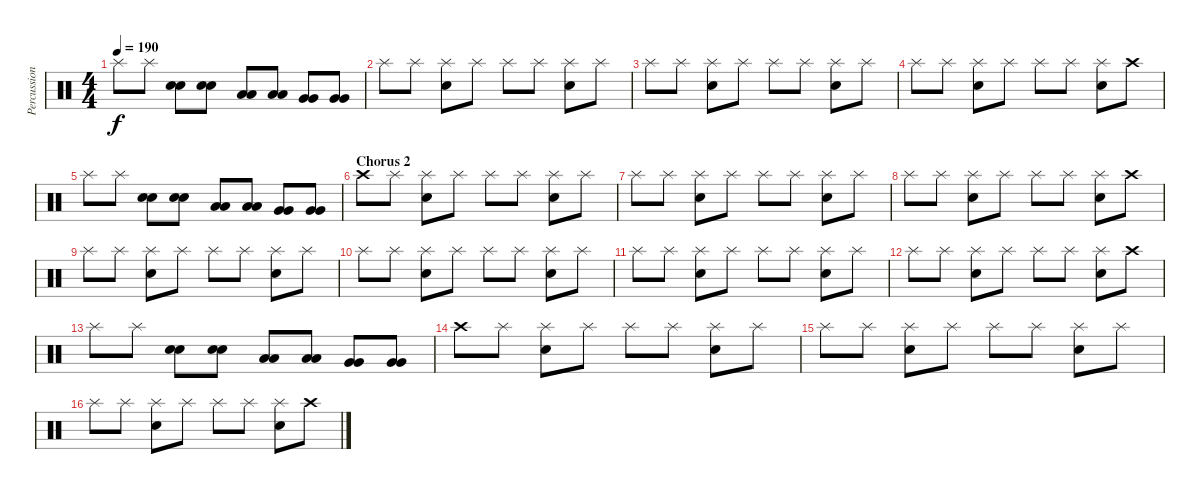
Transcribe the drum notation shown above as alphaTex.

\track ("Percussion" "Percussion") {instrument percussion}
\staff {score}
\articulation defaults
\ts (4 4)
\tempo 190
\clef neutral
\ks c "Splash (hit)".8{dy f} "Splash (hit)".8
("Snare (hit) 2" "Snare (hit) 2").8 ("Snare (hit) 2" "Snare (hit) 2").8 ("Low Floor Tom (hit)" "Low Floor Tom (hit)").8 ("Low Floor Tom (hit)" "Low Floor Tom (hit)").8 ("Very Low Tom (hit)" "Very Low Tom (hit)").8 ("Very Low Tom (hit)" "Very Low Tom (hit)").8 |
"Splash (hit)".8 "Splash (hit)".8 ("Splash (hit)" "Electric Snare (hit)").8 "Splash (hit)".8 "Splash (hit)".8 "Splash (hit)".8 ("Splash (hit)" "Electric Snare (hit)").8 "Splash (hit)".8 |
"Splash (hit)".8 "Splash (hit)".8 ("Splash (hit)" "Electric Snare (hit)").8 "Splash (hit)".8 "Splash (hit)".8 "Splash (hit)".8 ("Splash (hit)" "Electric Snare (hit)").8 "Splash (hit)".8 |
"Splash (hit)".8 "Splash (hit)".8 ("Splash (hit)" "Electric Snare (hit)").8 "Splash (hit)".8 "Splash (hit)".8 "Splash (hit)".8 ("Splash (hit)" "Electric Snare (hit)").8 "Crash high (hit)".8 |
"Splash (hit)".8 "Splash (hit)".8 ("Snare (hit) 2" "Snare (hit) 2").8 ("Snare (hit) 2" "Snare (hit) 2").8 ("Low Floor Tom (hit)" "Low Floor Tom (hit)").8 ("Low Floor Tom (hit)" "Low Floor Tom (hit)").8 ("Very Low Tom (hit)" "Very Low Tom (hit)").8 ("Very Low Tom (hit)" "Very Low Tom (hit)").8 |
\section ("" "Chorus 2")
"Crash high (hit)".8 "Splash (hit)".8 ("Splash (hit)" "Electric Snare (hit)").8 "Splash (hit)".8 "Splash (hit)".8 "Splash (hit)".8 ("Splash (hit)" "Electric Snare (hit)").8 "Splash (hit)".8 |
"Splash (hit)".8 "Splash (hit)".8 ("Splash (hit)" "Electric Snare (hit)").8 "Splash (hit)".8 "Splash (hit)".8 "Splash (hit)".8 ("Splash (hit)" "Electric Snare (hit)").8 "Splash (hit)".8 |
"Splash (hit)".8 "Splash (hit)".8 ("Splash (hit)" "Electric Snare (hit)").8 "Splash (hit)".8 "Splash (hit)".8 "Splash (hit)".8 ("Splash (hit)" "Electric Snare (hit)").8 "Crash high (hit)".8 |
"Splash (hit)".8 "Splash (hit)".8 ("Splash (hit)" "Electric Snare (hit)").8 "Splash (hit)".8 "Splash (hit)".8 "Splash (hit)".8 ("Splash (hit)" "Electric Snare (hit)").8 "Splash (hit)".8 |
"Splash (hit)".8 "Splash (hit)".8 ("Splash (hit)" "Electric Snare (hit)").8 "Splash (hit)".8 "Splash (hit)".8 "Splash (hit)".8 ("Splash (hit)" "Electric Snare (hit)").8 "Splash (hit)".8 |
"Splash (hit)".8 "Splash (hit)".8 ("Splash (hit)" "Electric Snare (hit)").8 "Splash (hit)".8 "Splash (hit)".8 "Splash (hit)".8 ("Splash (hit)" "Electric Snare (hit)").8 "Splash (hit)".8 |
"Splash (hit)".8 "Splash (hit)".8 ("Splash (hit)" "Electric Snare (hit)").8 "Splash (hit)".8 "Splash (hit)".8 "Splash (hit)".8 ("Splash (hit)" "Electric Snare (hit)").8 "Crash high (hit)".8 |
"Splash (hit)".8 "Splash (hit)".8 ("Snare (hit) 2" "Snare (hit) 2").8 ("Snare (hit) 2" "Snare (hit) 2").8 ("Low Floor Tom (hit)" "Low Floor Tom (hit)").8 ("Low Floor Tom (hit)" "Low Floor Tom (hit)").8 ("Very Low Tom (hit)" "Very Low Tom (hit)").8 ("Very Low Tom (hit)" "Very Low Tom (hit)").8 |
"Crash high (hit)".8 "Splash (hit)".8 ("Splash (hit)" "Electric Snare (hit)").8 "Splash (hit)".8 "Splash (hit)".8 "Splash (hit)".8 ("Splash (hit)" "Electric Snare (hit)").8 "Splash (hit)".8 |
"Splash (hit)".8 "Splash (hit)".8 ("Splash (hit)" "Electric Snare (hit)").8 "Splash (hit)".8 "Splash (hit)".8 "Splash (hit)".8 ("Splash (hit)" "Electric Snare (hit)").8 "Splash (hit)".8 |
"Splash (hit)".8 "Splash (hit)".8 ("Splash (hit)" "Electric Snare (hit)").8 "Splash (hit)".8 "Splash (hit)".8 "Splash (hit)".8 ("Splash (hit)" "Electric Snare (hit)").8 "Crash high (hit)".8
